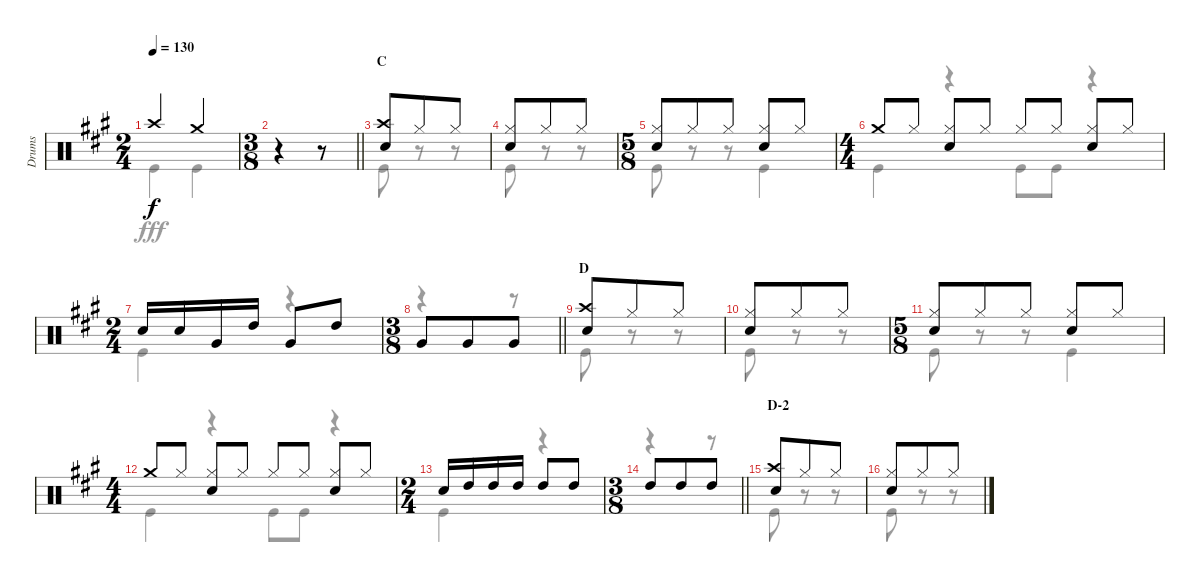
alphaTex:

\track ("Drums" "Drums") {instrument percussion}
\staff {score}
\articulation defaults
\voice
\ts (2 4)
\tempo 130
\clef neutral
\ks a "Crash high (hit)".4{dy f} "Crash medium (hit)".4
|
\ts (3 8)
\barLineRight lightlight
r.4 r.8 |
\section ("" "C")
("Crash high (hit)" "Snare (hit) 2").8 "Hi-Hat (closed)".8 "Hi-Hat (closed)".8 |
("Hi-Hat (closed)" "Snare (hit) 2").8 "Hi-Hat (closed)".8 "Hi-Hat (closed)".8 |
\ts (5 8)
("Hi-Hat (closed)" "Snare (hit) 2").8 "Hi-Hat (closed)".8 "Hi-Hat (closed)".8 ("Hi-Hat (closed)" "Snare (hit) 2").8 "Hi-Hat (closed)".8 |
\ts (4 4)
"Crash medium (hit)".8 "Hi-Hat (closed)".8 ("Hi-Hat (closed)" "Snare (hit) 2").8 "Hi-Hat (closed)".8 "Hi-Hat (closed)".8 "Hi-Hat (closed)".8 ("Hi-Hat (closed)" "Snare (hit) 2").8 "Hi-Hat (closed)".8 |
\ts (2 4)
"Snare (hit) 2".16 "Snare (hit) 2".16 "Very Low Tom (hit)".16 "High Tom (hit)".16 "Very Low Tom (hit)".8 "High Tom (hit)".8 |
\ts (3 8)
\barLineRight lightlight "Very Low Tom (hit)".8 "Very Low Tom (hit)".8 "Very Low Tom (hit)".8
|
\section ("" "D")
("Crash high (hit)" "Snare (hit) 2").8 "Hi-Hat (closed)".8 "Hi-Hat (closed)".8 |
("Hi-Hat (closed)" "Snare (hit) 2").8 "Hi-Hat (closed)".8 "Hi-Hat (closed)".8 |
\ts (5 8)
("Hi-Hat (closed)" "Snare (hit) 2").8 "Hi-Hat (closed)".8 "Hi-Hat (closed)".8 ("Hi-Hat (closed)" "Snare (hit) 2").8 "Hi-Hat (closed)".8 |
\ts (4 4)
"Crash medium (hit)".8 "Hi-Hat (closed)".8 ("Hi-Hat (closed)" "Snare (hit) 2").8 "Hi-Hat (closed)".8 "Hi-Hat (closed)".8 "Hi-Hat (closed)".8 ("Hi-Hat (closed)" "Snare (hit) 2").8 "Hi-Hat (closed)".8 |
\ts (2 4)
"Snare (hit) 2".16 "High Tom (hit)".16 "High Tom (hit)".16 "High Tom (hit)".16 "High Tom (hit)".8 "High Tom (hit)".8 |
\ts (3 8)
\barLineRight lightlight "High Tom (hit)".8 "High Tom (hit)".8 "High Tom (hit)".8
|
\section ("" "D-2")
("Crash high (hit)" "Snare (hit) 2").8 "Hi-Hat (closed)".8 "Hi-Hat (closed)".8 |
("Hi-Hat (closed)" "Snare (hit) 2").8 "Hi-Hat (closed)".8 "Hi-Hat (closed)".8
\voice
\clef neutral
\ottava regular
\simile none
\ks a "Kick (hit)".4{dy fff} "Kick (hit)".4
|
\barLineRight lightlight
r.4 r.8 |
"Kick (hit)".8 r.8 r.8 |
"Kick (hit)".8 r.8 r.8 |
"Kick (hit)".8 r.8 r.8 "Kick (hit)".4 |
"Kick (hit)".4 r.4 "Kick (hit)".8 "Kick (hit)".8 r.4 |
"Kick (hit)".4 r.4 |
\barLineRight lightlight
r.4 r.8 |
"Kick (hit)".8 r.8 r.8 |
"Kick (hit)".8 r.8 r.8 |
"Kick (hit)".8 r.8 r.8 "Kick (hit)".4 |
"Kick (hit)".4 r.4 "Kick (hit)".8 "Kick (hit)".8 r.4 |
"Kick (hit)".4 r.4 |
\barLineRight lightlight
r.4 r.8 |
"Kick (hit)".8 r.8 r.8 |
"Kick (hit)".8 r.8 r.8
